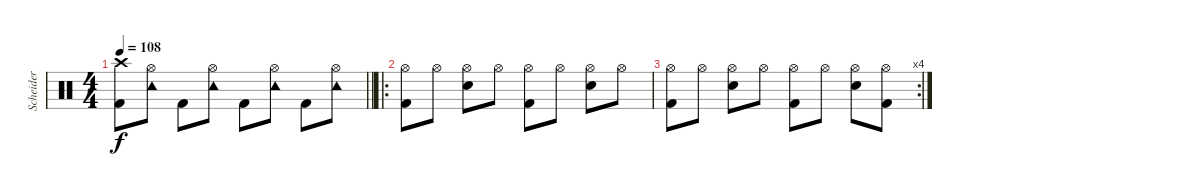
\track ("Scheider" "Scheider") {instrument percussion}
\staff {score}
\articulation defaults
\ts (4 4)
\tempo 108
\clef neutral
\barLineRight lightlight
\ks c
("Crash high (hit)" "Kick (hit) 2").8{dy f} ("Tambourine (hit)" "Hi-Hat (open)").8 "Kick (hit) 2".8 ("Tambourine (hit)" "Hi-Hat (open)").8 "Kick (hit) 2".8 ("Tambourine (hit)" "Hi-Hat (open)").8 "Kick (hit) 2".8 ("Tambourine (hit)" "Hi-Hat (open)").8 |
\ro
("Hi-Hat (open)" "Kick (hit) 2").8 "Hi-Hat (open)".8 ("Hi-Hat (open)" "Electric Snare (hit)").8 "Hi-Hat (open)".8 ("Hi-Hat (open)" "Kick (hit) 2").8 "Hi-Hat (open)".8 ("Hi-Hat (open)" "Electric Snare (hit)").8 "Hi-Hat (open)".8 |
\rc 4
("Hi-Hat (open)" "Kick (hit) 2").8 "Hi-Hat (open)".8 ("Hi-Hat (open)" "Electric Snare (hit)").8 "Hi-Hat (open)".8 ("Hi-Hat (open)" "Kick (hit) 2").8 "Hi-Hat (open)".8 ("Hi-Hat (open)" "Electric Snare (hit)").8 ("Hi-Hat (open)" "Kick (hit) 2").8
